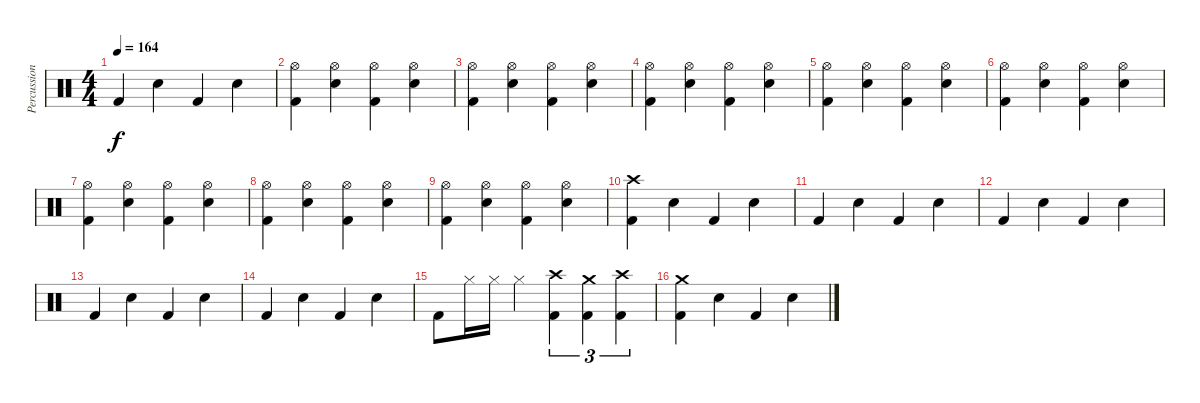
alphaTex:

\track ("Percussions" "Percussion") {instrument percussion}
\staff {score}
\articulation defaults
\ts (4 4)
\tempo 164
\clef neutral
\ks c "Kick (hit) 2".4{dy f} "Snare (hit) 2".4 "Kick (hit) 2".4 "Snare (hit) 2".4
|
("Hi-Hat (open)" "Kick (hit) 2").4 ("Hi-Hat (open)" "Snare (hit) 2").4 ("Hi-Hat (open)" "Kick (hit) 2").4 ("Hi-Hat (open)" "Snare (hit) 2").4 |
("Hi-Hat (open)" "Kick (hit) 2").4 ("Hi-Hat (open)" "Snare (hit) 2").4 ("Hi-Hat (open)" "Kick (hit) 2").4 ("Hi-Hat (open)" "Snare (hit) 2").4 |
("Hi-Hat (open)" "Kick (hit) 2").4 ("Hi-Hat (open)" "Snare (hit) 2").4 ("Hi-Hat (open)" "Kick (hit) 2").4 ("Hi-Hat (open)" "Snare (hit) 2").4 |
("Hi-Hat (open)" "Kick (hit) 2").4 ("Hi-Hat (open)" "Snare (hit) 2").4 ("Hi-Hat (open)" "Kick (hit) 2").4 ("Hi-Hat (open)" "Snare (hit) 2").4 |
("Hi-Hat (open)" "Kick (hit) 2").4 ("Hi-Hat (open)" "Snare (hit) 2").4 ("Hi-Hat (open)" "Kick (hit) 2").4 ("Hi-Hat (open)" "Snare (hit) 2").4 |
("Hi-Hat (open)" "Kick (hit) 2").4 ("Hi-Hat (open)" "Snare (hit) 2").4 ("Hi-Hat (open)" "Kick (hit) 2").4 ("Hi-Hat (open)" "Snare (hit) 2").4 |
("Hi-Hat (open)" "Kick (hit) 2").4 ("Hi-Hat (open)" "Snare (hit) 2").4 ("Hi-Hat (open)" "Kick (hit) 2").4 ("Hi-Hat (open)" "Snare (hit) 2").4 |
("Hi-Hat (open)" "Kick (hit) 2").4 ("Hi-Hat (open)" "Snare (hit) 2").4 ("Hi-Hat (open)" "Kick (hit) 2").4 ("Hi-Hat (open)" "Snare (hit) 2").4 |
("Crash high (hit)" "Kick (hit) 2").4 "Snare (hit) 2".4 "Kick (hit) 2".4 "Snare (hit) 2".4 |
"Kick (hit) 2".4 "Snare (hit) 2".4 "Kick (hit) 2".4 "Snare (hit) 2".4 |
"Kick (hit) 2".4 "Snare (hit) 2".4 "Kick (hit) 2".4 "Snare (hit) 2".4 |
"Kick (hit) 2".4 "Snare (hit) 2".4 "Kick (hit) 2".4 "Snare (hit) 2".4 |
"Kick (hit) 2".4 "Snare (hit) 2".4 "Kick (hit) 2".4 "Snare (hit) 2".4 |
"Kick (hit) 2".8 "Hi-Hat (closed)".16 "Hi-Hat (closed)".16 "Hi-Hat (closed)".4 ("Crash high (hit)" "Kick (hit) 2").4{tu (3 2)} ("Crash medium (hit)" "Kick (hit) 2").4{tu (3 2)} ("Crash high (hit)" "Kick (hit) 2").4{tu (3 2)} |
("Crash medium (hit)" "Kick (hit) 2").4 "Snare (hit) 2".4 "Kick (hit) 2".4 "Snare (hit) 2".4
